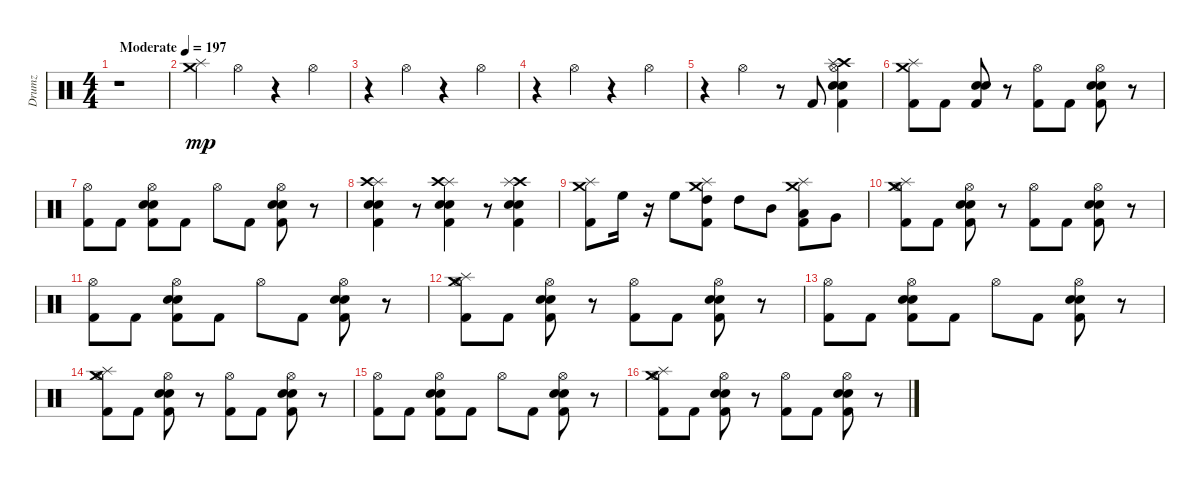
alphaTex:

\track ("Drumz" "Drumz") {instrument percussion}
\staff {score}
\articulation defaults
\ts (4 4)
\tempo (197 "Moderate")
\clef neutral
\ks c
r.1{dy mp} |
("Splash (hit)" "Crash medium (hit)").4 "Hi-Hat (open)".4 r.4 "Hi-Hat (open)".4 |
r.4 "Hi-Hat (open)".4 r.4 "Hi-Hat (open)".4 |
r.4 "Hi-Hat (open)".4 r.4 "Hi-Hat (open)".4 |
r.4 "Hi-Hat (open)".4 r.8 "Kick (hit) 2".8 ("Hi-Hat (open)" "Crash high (hit)" "Splash (hit)" "Electric Snare (hit)" "Kick (hit) 2" "Snare (hit) 2").4 |
("Splash (hit)" "Crash medium (hit)" "Kick (hit) 2").8 "Kick (hit) 2".8 ("Kick (hit) 2" "Snare (hit) 2" "Electric Snare (hit)").8 r.8 ("Kick (hit) 2" "Hi-Hat (open)").8 "Kick (hit) 2".8 ("Kick (hit) 2" "Snare (hit) 2" "Electric Snare (hit)" "Hi-Hat (open)").8 r.8 |
("Hi-Hat (open)" "Kick (hit) 2").8 "Kick (hit) 2".8 ("Hi-Hat (open)" "Snare (hit) 2" "Electric Snare (hit)" "Kick (hit) 2").8 "Kick (hit) 2".8 "Hi-Hat (open)".8 "Kick (hit) 2".8 ("Hi-Hat (open)" "Snare (hit) 2" "Electric Snare (hit)" "Kick (hit) 2").8 r.8 |
("Splash (hit)" "Crash high (hit)" "Kick (hit) 2" "Snare (hit) 2" "Electric Snare (hit)").4 r.8 ("Splash (hit)" "Crash high (hit)" "Kick (hit) 2" "Snare (hit) 2" "Electric Snare (hit)").4 r.8 ("Crash high (hit)" "Splash (hit)" "Kick (hit) 2" "Snare (hit) 2" "Electric Snare (hit)").4 |
("Crash medium (hit)" "Splash (hit)" "Kick (hit) 2").8 "High Floor Tom (hit)".16 r.16 "High Floor Tom (hit)".8 ("Splash (hit)" "Crash medium (hit)" "High Tom (hit)" "Kick (hit) 2").8 "High Tom (hit)".8 "Mid Tom (hit)".8 ("Crash medium (hit)" "Splash (hit)" "Low Tom (hit)" "Kick (hit) 2").8 "Very Low Tom (hit)".8 |
("Splash (hit)" "Crash medium (hit)" "Kick (hit) 2" "Hi-Hat (open)").8 "Kick (hit) 2".8 ("Kick (hit) 2" "Snare (hit) 2" "Electric Snare (hit)" "Hi-Hat (open)").8 r.8 ("Kick (hit) 2" "Hi-Hat (open)").8 "Kick (hit) 2".8 ("Kick (hit) 2" "Snare (hit) 2" "Electric Snare (hit)" "Hi-Hat (open)").8 r.8 |
("Hi-Hat (open)" "Kick (hit) 2").8 "Kick (hit) 2".8 ("Hi-Hat (open)" "Snare (hit) 2" "Electric Snare (hit)" "Kick (hit) 2").8 "Kick (hit) 2".8 "Hi-Hat (open)".8 "Kick (hit) 2".8 ("Hi-Hat (open)" "Snare (hit) 2" "Electric Snare (hit)" "Kick (hit) 2").8 r.8 |
("Splash (hit)" "Crash medium (hit)" "Kick (hit) 2" "Hi-Hat (open)").8 "Kick (hit) 2".8 ("Kick (hit) 2" "Snare (hit) 2" "Electric Snare (hit)" "Hi-Hat (open)").8 r.8 ("Kick (hit) 2" "Hi-Hat (open)").8 "Kick (hit) 2".8 ("Kick (hit) 2" "Snare (hit) 2" "Electric Snare (hit)" "Hi-Hat (open)").8 r.8 |
("Hi-Hat (open)" "Kick (hit) 2").8 "Kick (hit) 2".8 ("Hi-Hat (open)" "Snare (hit) 2" "Electric Snare (hit)" "Kick (hit) 2").8 "Kick (hit) 2".8 "Hi-Hat (open)".8 "Kick (hit) 2".8 ("Hi-Hat (open)" "Snare (hit) 2" "Electric Snare (hit)" "Kick (hit) 2").8 r.8 |
("Splash (hit)" "Crash medium (hit)" "Kick (hit) 2" "Hi-Hat (open)").8 "Kick (hit) 2".8 ("Kick (hit) 2" "Snare (hit) 2" "Electric Snare (hit)" "Hi-Hat (open)").8 r.8 ("Kick (hit) 2" "Hi-Hat (open)").8 "Kick (hit) 2".8 ("Kick (hit) 2" "Snare (hit) 2" "Electric Snare (hit)" "Hi-Hat (open)").8 r.8 |
("Hi-Hat (open)" "Kick (hit) 2").8 "Kick (hit) 2".8 ("Hi-Hat (open)" "Snare (hit) 2" "Electric Snare (hit)" "Kick (hit) 2").8 "Kick (hit) 2".8 "Hi-Hat (open)".8 "Kick (hit) 2".8 ("Hi-Hat (open)" "Snare (hit) 2" "Electric Snare (hit)" "Kick (hit) 2").8 r.8 |
("Splash (hit)" "Crash medium (hit)" "Kick (hit) 2" "Hi-Hat (open)").8 "Kick (hit) 2".8 ("Kick (hit) 2" "Snare (hit) 2" "Electric Snare (hit)" "Hi-Hat (open)").8 r.8 ("Kick (hit) 2" "Hi-Hat (open)").8 "Kick (hit) 2".8 ("Kick (hit) 2" "Snare (hit) 2" "Electric Snare (hit)" "Hi-Hat (open)").8 r.8
